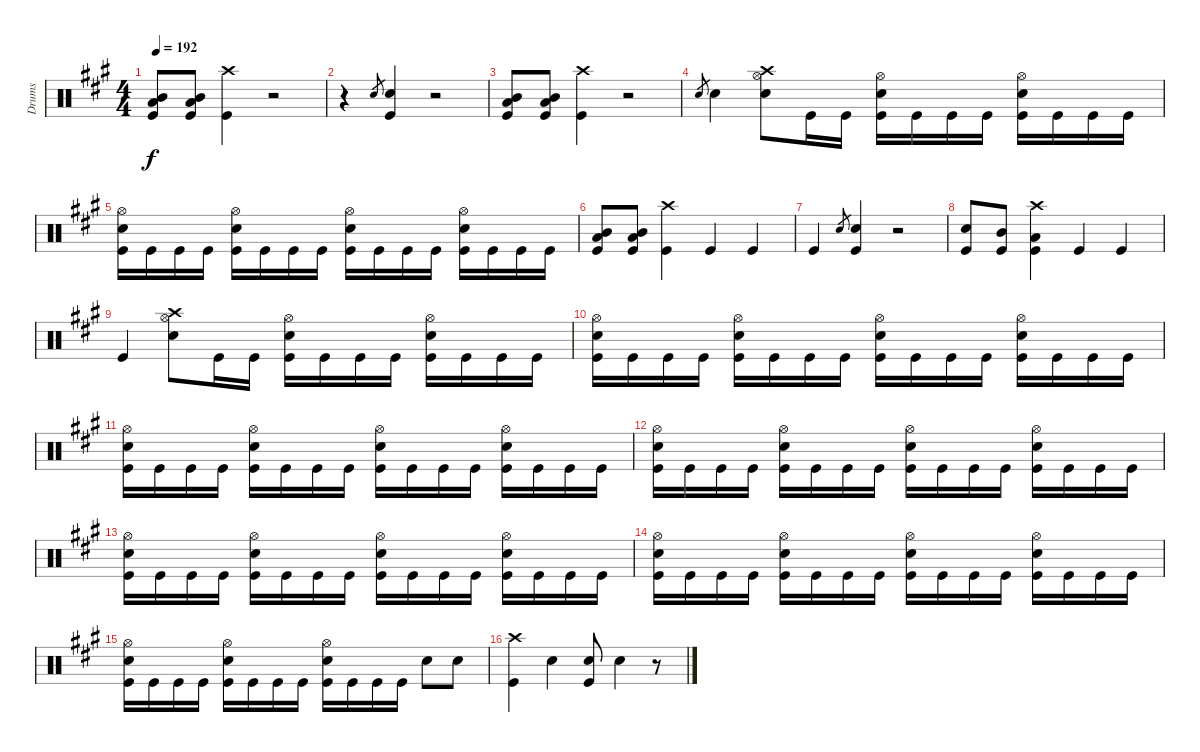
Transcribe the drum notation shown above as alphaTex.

\track ("Drums" "Drums") {instrument percussion}
\staff {score}
\articulation defaults
\ts (4 4)
\tempo 192
\clef neutral
\ks f#minor
("Low Tom (hit)" "Mid Tom (hit)" "Kick (hit)").8{dy f} ("Low Tom (hit)" "Mid Tom (hit)" "Kick (hit)").8 ("Crash high (hit)" "Kick (hit)").4 r.2 |
r.4 "Snare (hit) 2".8{gr} ("Snare (hit) 2" "Kick (hit)").4 r.2 |
("Low Tom (hit)" "Mid Tom (hit)" "Kick (hit)").8 ("Low Tom (hit)" "Mid Tom (hit)" "Kick (hit)").8 ("Crash high (hit)" "Kick (hit)").4 r.2 |
"Snare (hit) 2".8{gr} "Snare (hit) 2".4 ("Crash high (hit)" "Hi-Hat (open)" "Snare (hit) 2").8 "Kick (hit)".16 "Kick (hit)".16 ("Hi-Hat (open)" "Snare (hit) 2" "Kick (hit)").16 "Kick (hit)".16 "Kick (hit)".16 "Kick (hit)".16 ("Hi-Hat (open)" "Snare (hit) 2" "Kick (hit)").16 "Kick (hit)".16 "Kick (hit)".16 "Kick (hit)".16 |
("Hi-Hat (open)" "Snare (hit) 2" "Kick (hit)").16 "Kick (hit)".16 "Kick (hit)".16 "Kick (hit)".16 ("Hi-Hat (open)" "Snare (hit) 2" "Kick (hit)").16 "Kick (hit)".16 "Kick (hit)".16 "Kick (hit)".16 ("Hi-Hat (open)" "Snare (hit) 2" "Kick (hit)").16 "Kick (hit)".16 "Kick (hit)".16 "Kick (hit)".16 ("Hi-Hat (open)" "Snare (hit) 2" "Kick (hit)").16 "Kick (hit)".16 "Kick (hit)".16 "Kick (hit)".16 |
("Low Tom (hit)" "Mid Tom (hit)" "Kick (hit)").8 ("Low Tom (hit)" "Mid Tom (hit)" "Kick (hit)").8 ("Crash high (hit)" "Kick (hit)").4 "Kick (hit)".4 "Kick (hit)".4 |
"Kick (hit)".4 "Snare (hit) 2".8{gr} ("Snare (hit) 2" "Kick (hit)").4 r.2 |
("Snare (hit) 2" "Kick (hit)").8 ("Mid Tom (hit)" "Kick (hit)").8 ("Crash high (hit)" "Low Tom (hit)" "Kick (hit)").4 "Kick (hit)".4 "Kick (hit)".4 |
"Kick (hit)".4 ("Crash high (hit)" "Hi-Hat (open)" "Snare (hit) 2").8 "Kick (hit)".16 "Kick (hit)".16 ("Hi-Hat (open)" "Snare (hit) 2" "Kick (hit)").16 "Kick (hit)".16 "Kick (hit)".16 "Kick (hit)".16 ("Hi-Hat (open)" "Snare (hit) 2" "Kick (hit)").16 "Kick (hit)".16 "Kick (hit)".16 "Kick (hit)".16 |
("Hi-Hat (open)" "Snare (hit) 2" "Kick (hit)").16 "Kick (hit)".16 "Kick (hit)".16 "Kick (hit)".16 ("Hi-Hat (open)" "Snare (hit) 2" "Kick (hit)").16 "Kick (hit)".16 "Kick (hit)".16 "Kick (hit)".16 ("Hi-Hat (open)" "Snare (hit) 2" "Kick (hit)").16 "Kick (hit)".16 "Kick (hit)".16 "Kick (hit)".16 ("Hi-Hat (open)" "Snare (hit) 2" "Kick (hit)").16 "Kick (hit)".16 "Kick (hit)".16 "Kick (hit)".16 |
("Hi-Hat (open)" "Snare (hit) 2" "Kick (hit)").16 "Kick (hit)".16 "Kick (hit)".16 "Kick (hit)".16 ("Hi-Hat (open)" "Snare (hit) 2" "Kick (hit)").16 "Kick (hit)".16 "Kick (hit)".16 "Kick (hit)".16 ("Hi-Hat (open)" "Snare (hit) 2" "Kick (hit)").16 "Kick (hit)".16 "Kick (hit)".16 "Kick (hit)".16 ("Hi-Hat (open)" "Snare (hit) 2" "Kick (hit)").16 "Kick (hit)".16 "Kick (hit)".16 "Kick (hit)".16 |
("Hi-Hat (open)" "Snare (hit) 2" "Kick (hit)").16 "Kick (hit)".16 "Kick (hit)".16 "Kick (hit)".16 ("Hi-Hat (open)" "Snare (hit) 2" "Kick (hit)").16 "Kick (hit)".16 "Kick (hit)".16 "Kick (hit)".16 ("Hi-Hat (open)" "Snare (hit) 2" "Kick (hit)").16 "Kick (hit)".16 "Kick (hit)".16 "Kick (hit)".16 ("Hi-Hat (open)" "Snare (hit) 2" "Kick (hit)").16 "Kick (hit)".16 "Kick (hit)".16 "Kick (hit)".16 |
("Hi-Hat (open)" "Snare (hit) 2" "Kick (hit)").16 "Kick (hit)".16 "Kick (hit)".16 "Kick (hit)".16 ("Hi-Hat (open)" "Snare (hit) 2" "Kick (hit)").16 "Kick (hit)".16 "Kick (hit)".16 "Kick (hit)".16 ("Hi-Hat (open)" "Snare (hit) 2" "Kick (hit)").16 "Kick (hit)".16 "Kick (hit)".16 "Kick (hit)".16 ("Hi-Hat (open)" "Snare (hit) 2" "Kick (hit)").16 "Kick (hit)".16 "Kick (hit)".16 "Kick (hit)".16 |
("Hi-Hat (open)" "Snare (hit) 2" "Kick (hit)").16 "Kick (hit)".16 "Kick (hit)".16 "Kick (hit)".16 ("Hi-Hat (open)" "Snare (hit) 2" "Kick (hit)").16 "Kick (hit)".16 "Kick (hit)".16 "Kick (hit)".16 ("Hi-Hat (open)" "Snare (hit) 2" "Kick (hit)").16 "Kick (hit)".16 "Kick (hit)".16 "Kick (hit)".16 ("Hi-Hat (open)" "Snare (hit) 2" "Kick (hit)").16 "Kick (hit)".16 "Kick (hit)".16 "Kick (hit)".16 |
("Hi-Hat (open)" "Snare (hit) 2" "Kick (hit)").16 "Kick (hit)".16 "Kick (hit)".16 "Kick (hit)".16 ("Hi-Hat (open)" "Snare (hit) 2" "Kick (hit)").16 "Kick (hit)".16 "Kick (hit)".16 "Kick (hit)".16 ("Hi-Hat (open)" "Snare (hit) 2" "Kick (hit)").16 "Kick (hit)".16 "Kick (hit)".16 "Kick (hit)".16 "Snare (hit) 2".8 "Snare (hit) 2".8 |
("Crash high (hit)" "Kick (hit)").4 "Snare (hit) 2".4 ("Snare (hit) 2" "Kick (hit)").8 "Snare (hit) 2".4 r.8
